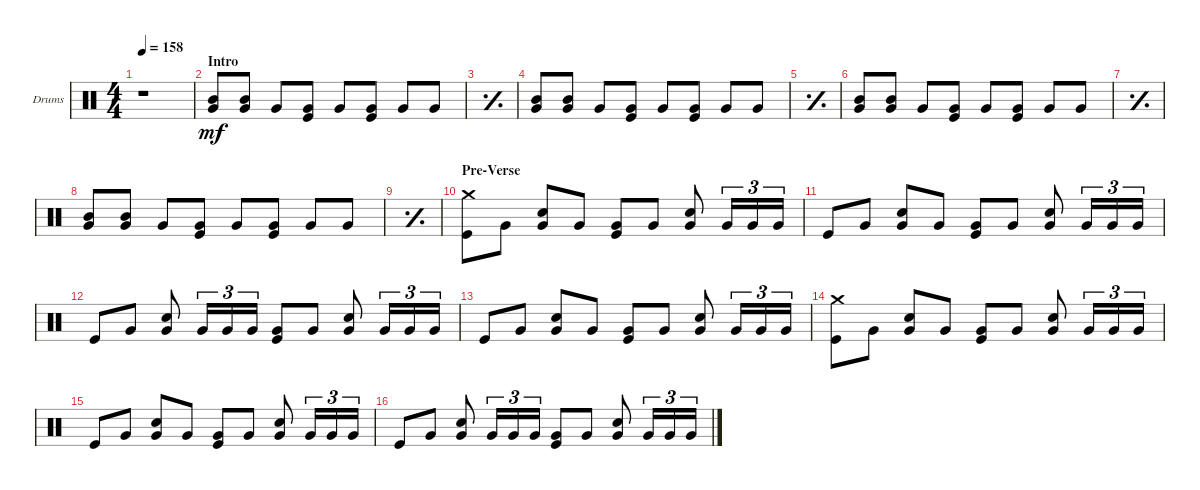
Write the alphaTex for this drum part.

\defaultSystemsLayout 4
\bracketExtendMode groupsimilarinstruments
\firstSystemTrackNameOrientation horizontal
\otherSystemsTrackNameOrientation horizontal
\track ("Drums" "Drums") {instrument percussion}
\staff {score}
\articulation defaults
\ts (4 4)
\tempo 158
\clef neutral
\ks c
r.1{dy mf} |
\section ("" "Intro")
("Very Low Tom (hit)" "Mid Tom (hit)").8 ("Very Low Tom (hit)" "Mid Tom (hit)").8 "Very Low Tom (hit)".8 ("Kick (hit)" "Very Low Tom (hit)").8 "Very Low Tom (hit)".8 ("Kick (hit)" "Very Low Tom (hit)").8 "Very Low Tom (hit)".8 "Very Low Tom (hit)".8 |
\simile simple
|
\simile none
("Very Low Tom (hit)" "Mid Tom (hit)").8 ("Very Low Tom (hit)" "Mid Tom (hit)").8 "Very Low Tom (hit)".8 ("Kick (hit)" "Very Low Tom (hit)").8 "Very Low Tom (hit)".8 ("Kick (hit)" "Very Low Tom (hit)").8 "Very Low Tom (hit)".8 "Very Low Tom (hit)".8 |
\simile simple
|
\simile none
("Very Low Tom (hit)" "Mid Tom (hit)").8 ("Very Low Tom (hit)" "Mid Tom (hit)").8 "Very Low Tom (hit)".8 ("Kick (hit)" "Very Low Tom (hit)").8 "Very Low Tom (hit)".8 ("Kick (hit)" "Very Low Tom (hit)").8 "Very Low Tom (hit)".8 "Very Low Tom (hit)".8 |
\simile simple
|
\simile none
("Very Low Tom (hit)" "Mid Tom (hit)").8 ("Very Low Tom (hit)" "Mid Tom (hit)").8 "Very Low Tom (hit)".8 ("Kick (hit)" "Very Low Tom (hit)").8 "Very Low Tom (hit)".8 ("Kick (hit)" "Very Low Tom (hit)").8 "Very Low Tom (hit)".8 "Very Low Tom (hit)".8 |
\simile simple
|
\section ("" "Pre-Verse ")
\simile none
("Crash medium (hit)" "Kick (hit)").8 "Very Low Tom (hit)".8 ("Very Low Tom (hit)" "Snare (hit) 2").8 "Very Low Tom (hit)".8 ("Very Low Tom (hit)" "Kick (hit)").8 "Very Low Tom (hit)".8 ("Very Low Tom (hit)" "Snare (hit) 2").8 "Very Low Tom (hit)".16{tu (3 2)} "Very Low Tom (hit)".16{tu (3 2)} "Very Low Tom (hit)".16{tu (3 2)} |
"Kick (hit)".8 "Very Low Tom (hit)".8 ("Very Low Tom (hit)" "Snare (hit) 2").8 "Very Low Tom (hit)".8 ("Very Low Tom (hit)" "Kick (hit)").8 "Very Low Tom (hit)".8 ("Very Low Tom (hit)" "Snare (hit) 2").8 "Very Low Tom (hit)".16{tu (3 2)} "Very Low Tom (hit)".16{tu (3 2)} "Very Low Tom (hit)".16{tu (3 2)} |
"Kick (hit)".8 "Very Low Tom (hit)".8 ("Very Low Tom (hit)" "Snare (hit) 2").8 "Very Low Tom (hit)".16{tu (3 2)} "Very Low Tom (hit)".16{tu (3 2)} "Very Low Tom (hit)".16{tu (3 2)} ("Very Low Tom (hit)" "Kick (hit)").8 "Very Low Tom (hit)".8 ("Very Low Tom (hit)" "Snare (hit) 2").8 "Very Low Tom (hit)".16{tu (3 2)} "Very Low Tom (hit)".16{tu (3 2)} "Very Low Tom (hit)".16{tu (3 2)} |
"Kick (hit)".8 "Very Low Tom (hit)".8 ("Very Low Tom (hit)" "Snare (hit) 2").8 "Very Low Tom (hit)".8 ("Very Low Tom (hit)" "Kick (hit)").8 "Very Low Tom (hit)".8 ("Very Low Tom (hit)" "Snare (hit) 2").8 "Very Low Tom (hit)".16{tu (3 2)} "Very Low Tom (hit)".16{tu (3 2)} "Very Low Tom (hit)".16{tu (3 2)} |
("Crash medium (hit)" "Kick (hit)").8 "Very Low Tom (hit)".8 ("Very Low Tom (hit)" "Snare (hit) 2").8 "Very Low Tom (hit)".8 ("Very Low Tom (hit)" "Kick (hit)").8 "Very Low Tom (hit)".8 ("Very Low Tom (hit)" "Snare (hit) 2").8 "Very Low Tom (hit)".16{tu (3 2)} "Very Low Tom (hit)".16{tu (3 2)} "Very Low Tom (hit)".16{tu (3 2)} |
"Kick (hit)".8 "Very Low Tom (hit)".8 ("Very Low Tom (hit)" "Snare (hit) 2").8 "Very Low Tom (hit)".8 ("Very Low Tom (hit)" "Kick (hit)").8 "Very Low Tom (hit)".8 ("Very Low Tom (hit)" "Snare (hit) 2").8 "Very Low Tom (hit)".16{tu (3 2)} "Very Low Tom (hit)".16{tu (3 2)} "Very Low Tom (hit)".16{tu (3 2)} |
"Kick (hit)".8 "Very Low Tom (hit)".8 ("Very Low Tom (hit)" "Snare (hit) 2").8 "Very Low Tom (hit)".16{tu (3 2)} "Very Low Tom (hit)".16{tu (3 2)} "Very Low Tom (hit)".16{tu (3 2)} ("Very Low Tom (hit)" "Kick (hit)").8 "Very Low Tom (hit)".8 ("Very Low Tom (hit)" "Snare (hit) 2").8 "Very Low Tom (hit)".16{tu (3 2)} "Very Low Tom (hit)".16{tu (3 2)} "Very Low Tom (hit)".16{tu (3 2)}
